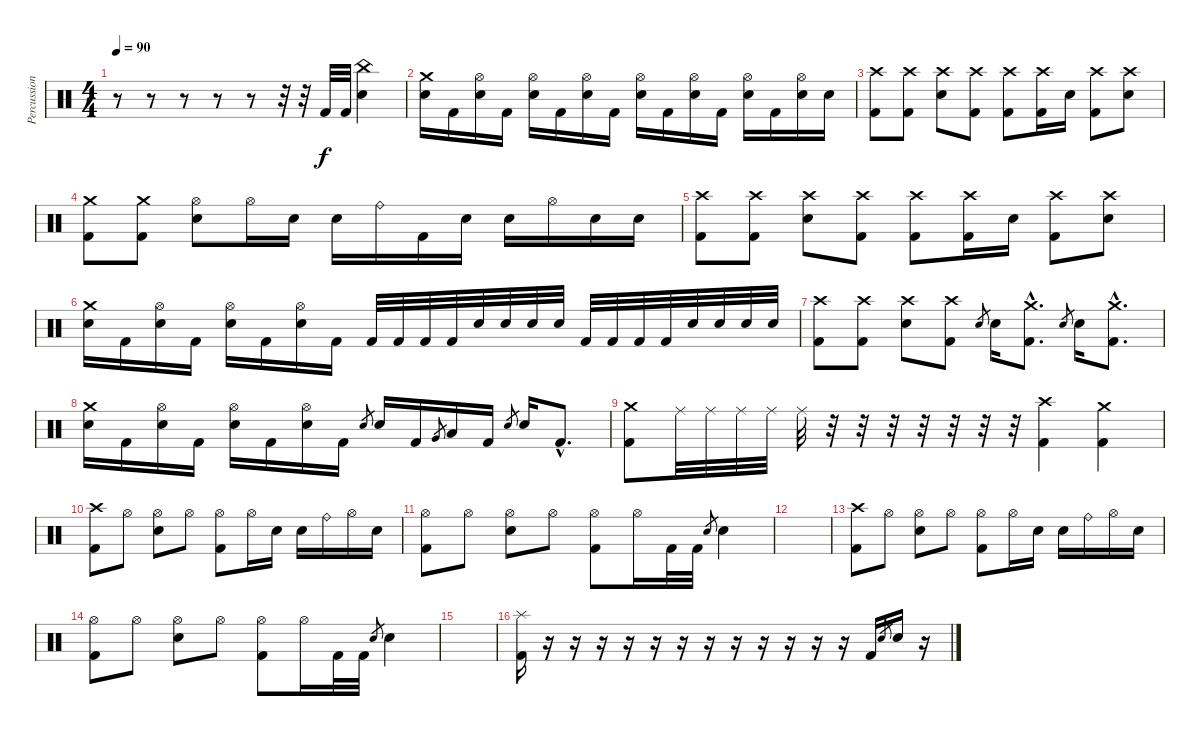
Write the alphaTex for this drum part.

\track ("Percussion" "Percussion") {instrument percussion}
\staff {score}
\articulation defaults
\ts (4 4)
\tempo 90
\clef neutral
\ks c
r.8{dy f} r.8 r.8 r.8 r.8 r.32 r.32 "Kick (hit) 2".32 "Kick (hit) 2".32 ("China (hit)" "Electric Snare (hit)").4 |
("Crash medium (hit)" "Electric Snare (hit)").16 "Kick (hit) 2".16 ("Hi-Hat (open)" "Electric Snare (hit)").16 "Kick (hit) 2".16 ("Hi-Hat (open)" "Electric Snare (hit)").16 "Kick (hit) 2".16 ("Hi-Hat (open)" "Electric Snare (hit)").16 "Kick (hit) 2".16 ("Hi-Hat (open)" "Electric Snare (hit)").16 "Kick (hit) 2".16 ("Hi-Hat (open)" "Electric Snare (hit)").16 "Kick (hit) 2".16 ("Hi-Hat (open)" "Electric Snare (hit)").16 "Kick (hit) 2".16 ("Hi-Hat (open)" "Electric Snare (hit)").16 "Electric Snare (hit)".16 |
("Crash high (hit)" "Kick (hit) 2").8 ("Crash high (hit)" "Kick (hit) 2").8 ("Crash high (hit)" "Electric Snare (hit)").8 ("Crash high (hit)" "Kick (hit) 2").8 ("Crash high (hit)" "Kick (hit) 2").8 ("Crash high (hit)" "Kick (hit) 2").16 "Electric Snare (hit)".16 ("Crash high (hit)" "Kick (hit) 2").8 ("Crash high (hit)" "Electric Snare (hit)").8 |
("Crash medium (hit)" "Kick (hit) 2").8 ("Crash medium (hit)" "Kick (hit) 2").8 ("Hi-Hat (open)" "Electric Snare (hit)").8 "Hi-Hat (open)".16 "Electric Snare (hit)".16 "Electric Snare (hit)".16 "Ride (bell)".16 "Kick (hit) 2".16 "Electric Snare (hit)".16 "Electric Snare (hit)".16 "Hi-Hat (open)".16 "Electric Snare (hit)".16 "Electric Snare (hit)".16 |
("Crash high (hit)" "Kick (hit) 2").8 ("Crash high (hit)" "Kick (hit) 2").8 ("Crash high (hit)" "Electric Snare (hit)").8 ("Crash high (hit)" "Kick (hit) 2").8 ("Crash high (hit)" "Kick (hit) 2").8 ("Crash high (hit)" "Kick (hit) 2").16 "Electric Snare (hit)".16 ("Crash high (hit)" "Kick (hit) 2").8 ("Crash high (hit)" "Electric Snare (hit)").8 |
("Crash medium (hit)" "Electric Snare (hit)").16 "Kick (hit) 2".16 ("Hi-Hat (open)" "Electric Snare (hit)").16 "Kick (hit) 2".16 ("Hi-Hat (open)" "Electric Snare (hit)").16 "Kick (hit) 2".16 ("Hi-Hat (open)" "Electric Snare (hit)").16 "Kick (hit) 2".16 "Kick (hit) 2".32 "Kick (hit) 2".32 "Kick (hit) 2".32 "Kick (hit) 2".32 "Electric Snare (hit)".32 "Electric Snare (hit)".32 "Electric Snare (hit)".32 "Electric Snare (hit)".32 "Kick (hit) 2".32 "Kick (hit) 2".32 "Kick (hit) 2".32 "Kick (hit) 2".32 "Electric Snare (hit)".32 "Electric Snare (hit)".32 "Electric Snare (hit)".32 "Electric Snare (hit)".32 |
("Crash high (hit)" "Kick (hit) 2").8 ("Crash high (hit)" "Kick (hit) 2").8 ("Crash high (hit)" "Electric Snare (hit)").8 ("Crash high (hit)" "Kick (hit) 2").8 "Electric Snare (hit)".8{gr} "Electric Snare (hit)".16 ("Crash medium (hit)"{hac} "Kick (hit) 2"{hac}).8{d} "Electric Snare (hit)".8{gr} "Electric Snare (hit)".16 ("Crash medium (hit)"{hac} "Kick (hit) 2"{hac}).8{d} |
("Crash medium (hit)" "Electric Snare (hit)").16 "Kick (hit) 2".16 ("Hi-Hat (open)" "Electric Snare (hit)").16 "Kick (hit) 2".16 ("Hi-Hat (open)" "Electric Snare (hit)").16 "Kick (hit) 2".16 ("Hi-Hat (open)" "Electric Snare (hit)").16 "Kick (hit) 2".16 "Electric Snare (hit)".8{gr} "Electric Snare (hit)".16 "Kick (hit) 2".16 "Very Low Tom (hit)".8{gr} "Low Floor Tom (hit)".16 "Kick (hit) 2".16 "Electric Snare (hit)".8{gr} "Electric Snare (hit)".16 "Kick (hit) 2"{hac}.8{d} |
("Crash medium (hit)" "Kick (hit) 2").8 "Ride (middle)".32 "Ride (middle)".32 "Ride (middle)".32 "Ride (middle)".32 "Ride (middle)".32 r.32 r.32 r.32 r.32 r.32 r.32 r.32 ("Crash high (hit)" "Kick (hit) 2").4 ("Crash medium (hit)" "Kick (hit) 2").4 |
("Crash high (hit)" "Kick (hit) 2").8 "Hi-Hat (open)".8 ("Hi-Hat (open)" "Electric Snare (hit)").8 "Hi-Hat (open)".8 ("Hi-Hat (open)" "Kick (hit) 2").8 "Hi-Hat (open)".16 "Electric Snare (hit)".16 "Electric Snare (hit)".16 "Ride (bell)".16 "Hi-Hat (open)".16 "Electric Snare (hit)".16 |
("Hi-Hat (open)" "Kick (hit) 2").8 "Hi-Hat (open)".8 ("Hi-Hat (open)" "Electric Snare (hit)").8 "Hi-Hat (open)".8 ("Hi-Hat (open)" "Kick (hit) 2").8 "Hi-Hat (open)".16 "Kick (hit) 2".32 "Kick (hit) 2".32 "Electric Snare (hit)".8{gr} "Electric Snare (hit)".4 |
|
("Crash high (hit)" "Kick (hit) 2").8 "Hi-Hat (open)".8 ("Hi-Hat (open)" "Electric Snare (hit)").8 "Hi-Hat (open)".8 ("Hi-Hat (open)" "Kick (hit) 2").8 "Hi-Hat (open)".16 "Electric Snare (hit)".16 "Electric Snare (hit)".16 "Ride (bell)".16 "Hi-Hat (open)".16 "Electric Snare (hit)".16 |
("Hi-Hat (open)" "Kick (hit) 2").8 "Hi-Hat (open)".8 ("Hi-Hat (open)" "Electric Snare (hit)").8 "Hi-Hat (open)".8 ("Hi-Hat (open)" "Kick (hit) 2").8 "Hi-Hat (open)".16 "Kick (hit) 2".32 "Kick (hit) 2".32 "Electric Snare (hit)".8{gr} "Electric Snare (hit)".4 |
|
("Splash (hit)" "Kick (hit) 2").16 r.16 r.16 r.16 r.16 r.16 r.16 r.16 r.16 r.16 r.16 r.16 r.16 "Kick (hit) 2".16 "Electric Snare (hit)".8{gr} "Electric Snare (hit)".16 r.16
